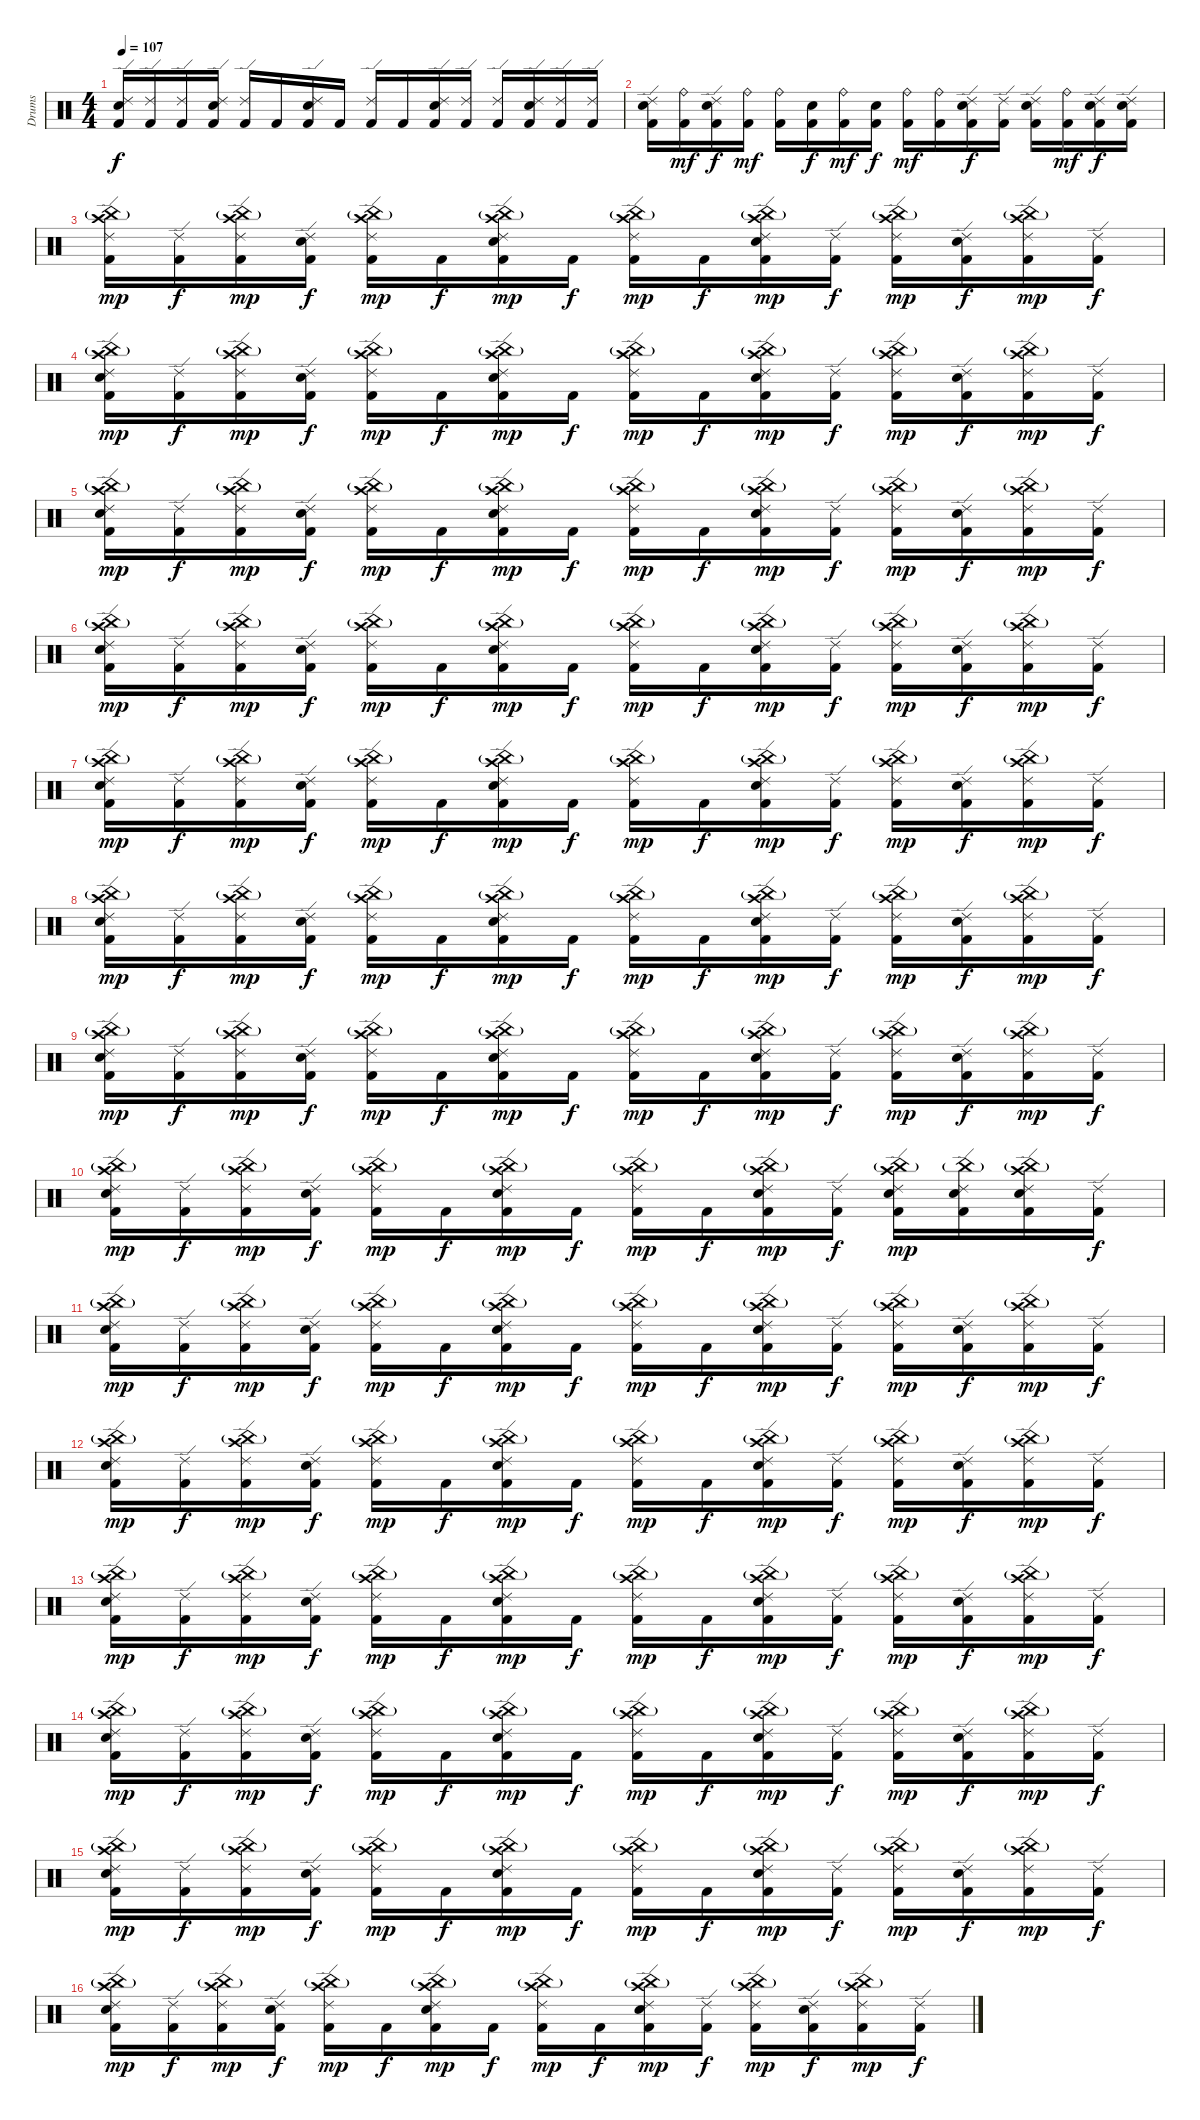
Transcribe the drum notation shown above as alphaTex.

\track ("Drums" "Drums") {instrument percussion}
\staff {score}
\articulation defaults
\ts (4 4)
\tempo 107
\clef neutral
\ks c
("Kick (hit) 2" "Electric Snare (hit)" "Ride (edge) 2").16{dy f} ("Kick (hit) 2" "Ride (edge) 2").16 ("Kick (hit) 2" "Ride (edge) 2").16 ("Kick (hit) 2" "Electric Snare (hit)" "Ride (edge) 2").16 ("Kick (hit) 2" "Ride (edge) 2").16 "Kick (hit) 2".16 ("Kick (hit) 2" "Electric Snare (hit)" "Ride (edge) 2").16 "Kick (hit) 2".16 ("Kick (hit) 2" "Ride (edge) 2").16 "Kick (hit) 2".16 ("Kick (hit) 2" "Electric Snare (hit)" "Ride (edge) 2").16 ("Kick (hit) 2" "Ride (edge) 2").16 ("Kick (hit) 2" "Ride (edge) 2").16 ("Kick (hit) 2" "Electric Snare (hit)" "Ride (edge) 2").16 ("Kick (hit) 2" "Ride (edge) 2").16 ("Kick (hit) 2" "Ride (edge) 2").16 |
("Kick (hit) 2" "Electric Snare (hit)" "Ride (edge) 2").16 ("Kick (hit) 2" "Ride (bell)").16{dy mf} ("Kick (hit) 2" "Electric Snare (hit)" "Ride (edge) 2").16{dy f} ("Kick (hit) 2" "Ride (bell)").16{dy mf} ("Kick (hit) 2" "Ride (bell)").16 ("Kick (hit) 2" "Electric Snare (hit)").16{dy f} ("Kick (hit) 2" "Ride (bell)").16{dy mf} ("Kick (hit) 2" "Electric Snare (hit)").16{dy f} ("Kick (hit) 2" "Ride (bell)").16{dy mf} ("Kick (hit) 2" "Ride (bell)").16 ("Kick (hit) 2" "Electric Snare (hit)" "Ride (edge) 2").16{dy f} ("Kick (hit) 2" "Ride (edge) 2").16 ("Kick (hit) 2" "Electric Snare (hit)" "Ride (edge) 2").16 ("Kick (hit) 2" "Ride (bell)").16{dy mf} ("Kick (hit) 2" "Electric Snare (hit)" "Ride (edge) 2").16{dy f} ("Kick (hit) 2" "Electric Snare (hit)" "Ride (edge) 2").16 |
("Kick (hit) 2" "Ride (edge) 2" "Crash high (hit)" "China (hit)"{g}).16{dy mp} ("Kick (hit) 2" "Ride (edge) 2").16{dy f} ("Kick (hit) 2" "Ride (edge) 2" "Crash high (hit)" "China (hit)"{g}).16{dy mp} ("Kick (hit) 2" "Electric Snare (hit)" "Ride (edge) 2").16{dy f} ("Kick (hit) 2" "Ride (edge) 2" "Crash high (hit)" "China (hit)"{g}).16{dy mp} "Kick (hit) 2".16{dy f} ("Kick (hit) 2" "Electric Snare (hit)" "Ride (edge) 2" "Crash high (hit)" "China (hit)"{g}).16{dy mp} "Kick (hit) 2".16{dy f} ("Kick (hit) 2" "Ride (edge) 2" "Crash high (hit)" "China (hit)"{g}).16{dy mp} "Kick (hit) 2".16{dy f} ("Kick (hit) 2" "Electric Snare (hit)" "Ride (edge) 2" "Crash high (hit)" "China (hit)"{g}).16{dy mp} ("Kick (hit) 2" "Ride (edge) 2").16{dy f} ("Kick (hit) 2" "Ride (edge) 2" "Crash high (hit)" "China (hit)"{g}).16{dy mp} ("Kick (hit) 2" "Electric Snare (hit)" "Ride (edge) 2").16{dy f} ("Kick (hit) 2" "Ride (edge) 2" "Crash high (hit)" "China (hit)"{g}).16{dy mp} ("Kick (hit) 2" "Ride (edge) 2").16{dy f} |
("Kick (hit) 2" "Electric Snare (hit)" "Ride (edge) 2" "Crash high (hit)" "China (hit)"{g}).16{dy mp} ("Kick (hit) 2" "Ride (edge) 2").16{dy f} ("Kick (hit) 2" "Ride (edge) 2" "Crash high (hit)" "China (hit)"{g}).16{dy mp} ("Kick (hit) 2" "Electric Snare (hit)" "Ride (edge) 2").16{dy f} ("Kick (hit) 2" "Ride (edge) 2" "Crash high (hit)" "China (hit)"{g}).16{dy mp} "Kick (hit) 2".16{dy f} ("Kick (hit) 2" "Electric Snare (hit)" "Ride (edge) 2" "Crash high (hit)" "China (hit)"{g}).16{dy mp} "Kick (hit) 2".16{dy f} ("Kick (hit) 2" "Ride (edge) 2" "Crash high (hit)" "China (hit)"{g}).16{dy mp} "Kick (hit) 2".16{dy f} ("Kick (hit) 2" "Electric Snare (hit)" "Ride (edge) 2" "Crash high (hit)" "China (hit)"{g}).16{dy mp} ("Kick (hit) 2" "Ride (edge) 2").16{dy f} ("Kick (hit) 2" "Ride (edge) 2" "Crash high (hit)" "China (hit)"{g}).16{dy mp} ("Kick (hit) 2" "Electric Snare (hit)" "Ride (edge) 2").16{dy f} ("Kick (hit) 2" "Ride (edge) 2" "Crash high (hit)" "China (hit)"{g}).16{dy mp} ("Kick (hit) 2" "Ride (edge) 2").16{dy f} |
("Kick (hit) 2" "Electric Snare (hit)" "Ride (edge) 2" "Crash high (hit)" "China (hit)"{g}).16{dy mp} ("Kick (hit) 2" "Ride (edge) 2").16{dy f} ("Kick (hit) 2" "Ride (edge) 2" "Crash high (hit)" "China (hit)"{g}).16{dy mp} ("Kick (hit) 2" "Electric Snare (hit)" "Ride (edge) 2").16{dy f} ("Kick (hit) 2" "Ride (edge) 2" "Crash high (hit)" "China (hit)"{g}).16{dy mp} "Kick (hit) 2".16{dy f} ("Kick (hit) 2" "Electric Snare (hit)" "Ride (edge) 2" "Crash high (hit)" "China (hit)"{g}).16{dy mp} "Kick (hit) 2".16{dy f} ("Kick (hit) 2" "Ride (edge) 2" "Crash high (hit)" "China (hit)"{g}).16{dy mp} "Kick (hit) 2".16{dy f} ("Kick (hit) 2" "Electric Snare (hit)" "Ride (edge) 2" "Crash high (hit)" "China (hit)"{g}).16{dy mp} ("Kick (hit) 2" "Ride (edge) 2").16{dy f} ("Kick (hit) 2" "Ride (edge) 2" "Crash high (hit)" "China (hit)"{g}).16{dy mp} ("Kick (hit) 2" "Electric Snare (hit)" "Ride (edge) 2").16{dy f} ("Kick (hit) 2" "Ride (edge) 2" "Crash high (hit)" "China (hit)"{g}).16{dy mp} ("Kick (hit) 2" "Ride (edge) 2").16{dy f} |
("Kick (hit) 2" "Electric Snare (hit)" "Ride (edge) 2" "Crash high (hit)" "China (hit)"{g}).16{dy mp} ("Kick (hit) 2" "Ride (edge) 2").16{dy f} ("Kick (hit) 2" "Ride (edge) 2" "Crash high (hit)" "China (hit)"{g}).16{dy mp} ("Kick (hit) 2" "Electric Snare (hit)" "Ride (edge) 2").16{dy f} ("Kick (hit) 2" "Ride (edge) 2" "Crash high (hit)" "China (hit)"{g}).16{dy mp} "Kick (hit) 2".16{dy f} ("Kick (hit) 2" "Electric Snare (hit)" "Ride (edge) 2" "Crash high (hit)" "China (hit)"{g}).16{dy mp} "Kick (hit) 2".16{dy f} ("Kick (hit) 2" "Ride (edge) 2" "Crash high (hit)" "China (hit)"{g}).16{dy mp} "Kick (hit) 2".16{dy f} ("Kick (hit) 2" "Electric Snare (hit)" "Ride (edge) 2" "Crash high (hit)" "China (hit)"{g}).16{dy mp} ("Kick (hit) 2" "Ride (edge) 2").16{dy f} ("Kick (hit) 2" "Ride (edge) 2" "Crash high (hit)" "China (hit)"{g}).16{dy mp} ("Kick (hit) 2" "Electric Snare (hit)" "Ride (edge) 2").16{dy f} ("Kick (hit) 2" "Ride (edge) 2" "Crash high (hit)" "China (hit)"{g}).16{dy mp} ("Kick (hit) 2" "Ride (edge) 2").16{dy f} |
("Kick (hit) 2" "Electric Snare (hit)" "Ride (edge) 2" "Crash high (hit)" "China (hit)"{g}).16{dy mp} ("Kick (hit) 2" "Ride (edge) 2").16{dy f} ("Kick (hit) 2" "Ride (edge) 2" "Crash high (hit)" "China (hit)"{g}).16{dy mp} ("Kick (hit) 2" "Electric Snare (hit)" "Ride (edge) 2").16{dy f} ("Kick (hit) 2" "Ride (edge) 2" "Crash high (hit)" "China (hit)"{g}).16{dy mp} "Kick (hit) 2".16{dy f} ("Kick (hit) 2" "Electric Snare (hit)" "Ride (edge) 2" "Crash high (hit)" "China (hit)"{g}).16{dy mp} "Kick (hit) 2".16{dy f} ("Kick (hit) 2" "Ride (edge) 2" "Crash high (hit)" "China (hit)"{g}).16{dy mp} "Kick (hit) 2".16{dy f} ("Kick (hit) 2" "Electric Snare (hit)" "Ride (edge) 2" "Crash high (hit)" "China (hit)"{g}).16{dy mp} ("Kick (hit) 2" "Ride (edge) 2").16{dy f} ("Kick (hit) 2" "Ride (edge) 2" "Crash high (hit)" "China (hit)"{g}).16{dy mp} ("Kick (hit) 2" "Electric Snare (hit)" "Ride (edge) 2").16{dy f} ("Kick (hit) 2" "Ride (edge) 2" "Crash high (hit)" "China (hit)"{g}).16{dy mp} ("Kick (hit) 2" "Ride (edge) 2").16{dy f} |
("Kick (hit) 2" "Electric Snare (hit)" "Ride (edge) 2" "Crash high (hit)" "China (hit)"{g}).16{dy mp} ("Kick (hit) 2" "Ride (edge) 2").16{dy f} ("Kick (hit) 2" "Ride (edge) 2" "Crash high (hit)" "China (hit)"{g}).16{dy mp} ("Kick (hit) 2" "Electric Snare (hit)" "Ride (edge) 2").16{dy f} ("Kick (hit) 2" "Ride (edge) 2" "Crash high (hit)" "China (hit)"{g}).16{dy mp} "Kick (hit) 2".16{dy f} ("Kick (hit) 2" "Electric Snare (hit)" "Ride (edge) 2" "Crash high (hit)" "China (hit)"{g}).16{dy mp} "Kick (hit) 2".16{dy f} ("Kick (hit) 2" "Ride (edge) 2" "Crash high (hit)" "China (hit)"{g}).16{dy mp} "Kick (hit) 2".16{dy f} ("Kick (hit) 2" "Electric Snare (hit)" "Ride (edge) 2" "Crash high (hit)" "China (hit)"{g}).16{dy mp} ("Kick (hit) 2" "Ride (edge) 2").16{dy f} ("Kick (hit) 2" "Ride (edge) 2" "Crash high (hit)" "China (hit)"{g}).16{dy mp} ("Kick (hit) 2" "Electric Snare (hit)" "Ride (edge) 2").16{dy f} ("Kick (hit) 2" "Ride (edge) 2" "Crash high (hit)" "China (hit)"{g}).16{dy mp} ("Kick (hit) 2" "Ride (edge) 2").16{dy f} |
("Kick (hit) 2" "Electric Snare (hit)" "Ride (edge) 2" "Crash high (hit)" "China (hit)"{g}).16{dy mp} ("Kick (hit) 2" "Ride (edge) 2").16{dy f} ("Kick (hit) 2" "Ride (edge) 2" "Crash high (hit)" "China (hit)"{g}).16{dy mp} ("Kick (hit) 2" "Electric Snare (hit)" "Ride (edge) 2").16{dy f} ("Kick (hit) 2" "Ride (edge) 2" "Crash high (hit)" "China (hit)"{g}).16{dy mp} "Kick (hit) 2".16{dy f} ("Kick (hit) 2" "Electric Snare (hit)" "Ride (edge) 2" "Crash high (hit)" "China (hit)"{g}).16{dy mp} "Kick (hit) 2".16{dy f} ("Kick (hit) 2" "Ride (edge) 2" "Crash high (hit)" "China (hit)"{g}).16{dy mp} "Kick (hit) 2".16{dy f} ("Kick (hit) 2" "Electric Snare (hit)" "Ride (edge) 2" "Crash high (hit)" "China (hit)"{g}).16{dy mp} ("Kick (hit) 2" "Ride (edge) 2").16{dy f} ("Kick (hit) 2" "Ride (edge) 2" "Crash high (hit)" "China (hit)"{g}).16{dy mp} ("Kick (hit) 2" "Electric Snare (hit)" "Ride (edge) 2").16{dy f} ("Kick (hit) 2" "Ride (edge) 2" "Crash high (hit)" "China (hit)"{g}).16{dy mp} ("Kick (hit) 2" "Ride (edge) 2").16{dy f} |
("Kick (hit) 2" "Electric Snare (hit)" "Ride (edge) 2" "Crash high (hit)" "China (hit)"{g}).16{dy mp} ("Kick (hit) 2" "Ride (edge) 2").16{dy f} ("Kick (hit) 2" "Ride (edge) 2" "Crash high (hit)" "China (hit)"{g}).16{dy mp} ("Kick (hit) 2" "Electric Snare (hit)" "Ride (edge) 2").16{dy f} ("Kick (hit) 2" "Ride (edge) 2" "Crash high (hit)" "China (hit)"{g}).16{dy mp} "Kick (hit) 2".16{dy f} ("Kick (hit) 2" "Electric Snare (hit)" "Ride (edge) 2" "Crash high (hit)" "China (hit)"{g}).16{dy mp} "Kick (hit) 2".16{dy f} ("Kick (hit) 2" "Ride (edge) 2" "Crash high (hit)" "China (hit)"{g}).16{dy mp} "Kick (hit) 2".16{dy f} ("Kick (hit) 2" "Electric Snare (hit)" "Ride (edge) 2" "Crash high (hit)" "China (hit)"{g}).16{dy mp} ("Kick (hit) 2" "Ride (edge) 2").16{dy f} ("Kick (hit) 2" "Electric Snare (hit)" "Ride (edge) 2" "Crash high (hit)" "China (hit)"{g}).16{dy mp} ("Kick (hit) 2" "Electric Snare (hit)" "Ride (edge) 2" "China (hit)"{g}).16 ("Kick (hit) 2" "Electric Snare (hit)" "Ride (edge) 2" "Crash high (hit)" "China (hit)"{g}).16 ("Kick (hit) 2" "Ride (edge) 2").16{dy f} |
("Kick (hit) 2" "Electric Snare (hit)" "Ride (edge) 2" "Crash high (hit)" "China (hit)"{g}).16{dy mp} ("Kick (hit) 2" "Ride (edge) 2").16{dy f} ("Kick (hit) 2" "Ride (edge) 2" "Crash high (hit)" "China (hit)"{g}).16{dy mp} ("Kick (hit) 2" "Electric Snare (hit)" "Ride (edge) 2").16{dy f} ("Kick (hit) 2" "Ride (edge) 2" "Crash high (hit)" "China (hit)"{g}).16{dy mp} "Kick (hit) 2".16{dy f} ("Kick (hit) 2" "Electric Snare (hit)" "Ride (edge) 2" "Crash high (hit)" "China (hit)"{g}).16{dy mp} "Kick (hit) 2".16{dy f} ("Kick (hit) 2" "Ride (edge) 2" "Crash high (hit)" "China (hit)"{g}).16{dy mp} "Kick (hit) 2".16{dy f} ("Kick (hit) 2" "Electric Snare (hit)" "Ride (edge) 2" "Crash high (hit)" "China (hit)"{g}).16{dy mp} ("Kick (hit) 2" "Ride (edge) 2").16{dy f} ("Kick (hit) 2" "Ride (edge) 2" "Crash high (hit)" "China (hit)"{g}).16{dy mp} ("Kick (hit) 2" "Electric Snare (hit)" "Ride (edge) 2").16{dy f} ("Kick (hit) 2" "Ride (edge) 2" "Crash high (hit)" "China (hit)"{g}).16{dy mp} ("Kick (hit) 2" "Ride (edge) 2").16{dy f} |
("Kick (hit) 2" "Electric Snare (hit)" "Ride (edge) 2" "Crash high (hit)" "China (hit)"{g}).16{dy mp} ("Kick (hit) 2" "Ride (edge) 2").16{dy f} ("Kick (hit) 2" "Ride (edge) 2" "Crash high (hit)" "China (hit)"{g}).16{dy mp} ("Kick (hit) 2" "Electric Snare (hit)" "Ride (edge) 2").16{dy f} ("Kick (hit) 2" "Ride (edge) 2" "Crash high (hit)" "China (hit)"{g}).16{dy mp} "Kick (hit) 2".16{dy f} ("Kick (hit) 2" "Electric Snare (hit)" "Ride (edge) 2" "Crash high (hit)" "China (hit)"{g}).16{dy mp} "Kick (hit) 2".16{dy f} ("Kick (hit) 2" "Ride (edge) 2" "Crash high (hit)" "China (hit)"{g}).16{dy mp} "Kick (hit) 2".16{dy f} ("Kick (hit) 2" "Electric Snare (hit)" "Ride (edge) 2" "Crash high (hit)" "China (hit)"{g}).16{dy mp} ("Kick (hit) 2" "Ride (edge) 2").16{dy f} ("Kick (hit) 2" "Ride (edge) 2" "Crash high (hit)" "China (hit)"{g}).16{dy mp} ("Kick (hit) 2" "Electric Snare (hit)" "Ride (edge) 2").16{dy f} ("Kick (hit) 2" "Ride (edge) 2" "Crash high (hit)" "China (hit)"{g}).16{dy mp} ("Kick (hit) 2" "Ride (edge) 2").16{dy f} |
("Kick (hit) 2" "Electric Snare (hit)" "Ride (edge) 2" "Crash high (hit)" "China (hit)"{g}).16{dy mp} ("Kick (hit) 2" "Ride (edge) 2").16{dy f} ("Kick (hit) 2" "Ride (edge) 2" "Crash high (hit)" "China (hit)"{g}).16{dy mp} ("Kick (hit) 2" "Electric Snare (hit)" "Ride (edge) 2").16{dy f} ("Kick (hit) 2" "Ride (edge) 2" "Crash high (hit)" "China (hit)"{g}).16{dy mp} "Kick (hit) 2".16{dy f} ("Kick (hit) 2" "Electric Snare (hit)" "Ride (edge) 2" "Crash high (hit)" "China (hit)"{g}).16{dy mp} "Kick (hit) 2".16{dy f} ("Kick (hit) 2" "Ride (edge) 2" "Crash high (hit)" "China (hit)"{g}).16{dy mp} "Kick (hit) 2".16{dy f} ("Kick (hit) 2" "Electric Snare (hit)" "Ride (edge) 2" "Crash high (hit)" "China (hit)"{g}).16{dy mp} ("Kick (hit) 2" "Ride (edge) 2").16{dy f} ("Kick (hit) 2" "Ride (edge) 2" "Crash high (hit)" "China (hit)"{g}).16{dy mp} ("Kick (hit) 2" "Electric Snare (hit)" "Ride (edge) 2").16{dy f} ("Kick (hit) 2" "Ride (edge) 2" "Crash high (hit)" "China (hit)"{g}).16{dy mp} ("Kick (hit) 2" "Ride (edge) 2").16{dy f} |
("Kick (hit) 2" "Electric Snare (hit)" "Ride (edge) 2" "Crash high (hit)" "China (hit)"{g}).16{dy mp} ("Kick (hit) 2" "Ride (edge) 2").16{dy f} ("Kick (hit) 2" "Ride (edge) 2" "Crash high (hit)" "China (hit)"{g}).16{dy mp} ("Kick (hit) 2" "Electric Snare (hit)" "Ride (edge) 2").16{dy f} ("Kick (hit) 2" "Ride (edge) 2" "Crash high (hit)" "China (hit)"{g}).16{dy mp} "Kick (hit) 2".16{dy f} ("Kick (hit) 2" "Electric Snare (hit)" "Ride (edge) 2" "Crash high (hit)" "China (hit)"{g}).16{dy mp} "Kick (hit) 2".16{dy f} ("Kick (hit) 2" "Ride (edge) 2" "Crash high (hit)" "China (hit)"{g}).16{dy mp} "Kick (hit) 2".16{dy f} ("Kick (hit) 2" "Electric Snare (hit)" "Ride (edge) 2" "Crash high (hit)" "China (hit)"{g}).16{dy mp} ("Kick (hit) 2" "Ride (edge) 2").16{dy f} ("Kick (hit) 2" "Ride (edge) 2" "Crash high (hit)" "China (hit)"{g}).16{dy mp} ("Kick (hit) 2" "Electric Snare (hit)" "Ride (edge) 2").16{dy f} ("Kick (hit) 2" "Ride (edge) 2" "Crash high (hit)" "China (hit)"{g}).16{dy mp} ("Kick (hit) 2" "Ride (edge) 2").16{dy f} |
("Kick (hit) 2" "Electric Snare (hit)" "Ride (edge) 2" "Crash high (hit)" "China (hit)"{g}).16{dy mp} ("Kick (hit) 2" "Ride (edge) 2").16{dy f} ("Kick (hit) 2" "Ride (edge) 2" "Crash high (hit)" "China (hit)"{g}).16{dy mp} ("Kick (hit) 2" "Electric Snare (hit)" "Ride (edge) 2").16{dy f} ("Kick (hit) 2" "Ride (edge) 2" "Crash high (hit)" "China (hit)"{g}).16{dy mp} "Kick (hit) 2".16{dy f} ("Kick (hit) 2" "Electric Snare (hit)" "Ride (edge) 2" "Crash high (hit)" "China (hit)"{g}).16{dy mp} "Kick (hit) 2".16{dy f} ("Kick (hit) 2" "Ride (edge) 2" "Crash high (hit)" "China (hit)"{g}).16{dy mp} "Kick (hit) 2".16{dy f} ("Kick (hit) 2" "Electric Snare (hit)" "Ride (edge) 2" "Crash high (hit)" "China (hit)"{g}).16{dy mp} ("Kick (hit) 2" "Ride (edge) 2").16{dy f} ("Kick (hit) 2" "Ride (edge) 2" "Crash high (hit)" "China (hit)"{g}).16{dy mp} ("Kick (hit) 2" "Electric Snare (hit)" "Ride (edge) 2").16{dy f} ("Kick (hit) 2" "Ride (edge) 2" "Crash high (hit)" "China (hit)"{g}).16{dy mp} ("Kick (hit) 2" "Ride (edge) 2").16{dy f} |
("Kick (hit) 2" "Electric Snare (hit)" "Ride (edge) 2" "Crash high (hit)" "China (hit)"{g}).16{dy mp} ("Kick (hit) 2" "Ride (edge) 2").16{dy f} ("Kick (hit) 2" "Ride (edge) 2" "Crash high (hit)" "China (hit)"{g}).16{dy mp} ("Kick (hit) 2" "Electric Snare (hit)" "Ride (edge) 2").16{dy f} ("Kick (hit) 2" "Ride (edge) 2" "Crash high (hit)" "China (hit)"{g}).16{dy mp} "Kick (hit) 2".16{dy f} ("Kick (hit) 2" "Electric Snare (hit)" "Ride (edge) 2" "Crash high (hit)" "China (hit)"{g}).16{dy mp} "Kick (hit) 2".16{dy f} ("Kick (hit) 2" "Ride (edge) 2" "Crash high (hit)" "China (hit)"{g}).16{dy mp} "Kick (hit) 2".16{dy f} ("Kick (hit) 2" "Electric Snare (hit)" "Ride (edge) 2" "Crash high (hit)" "China (hit)"{g}).16{dy mp} ("Kick (hit) 2" "Ride (edge) 2").16{dy f} ("Kick (hit) 2" "Ride (edge) 2" "Crash high (hit)" "China (hit)"{g}).16{dy mp} ("Kick (hit) 2" "Electric Snare (hit)" "Ride (edge) 2").16{dy f} ("Kick (hit) 2" "Ride (edge) 2" "Crash high (hit)" "China (hit)"{g}).16{dy mp} ("Kick (hit) 2" "Ride (edge) 2").16{dy f}
